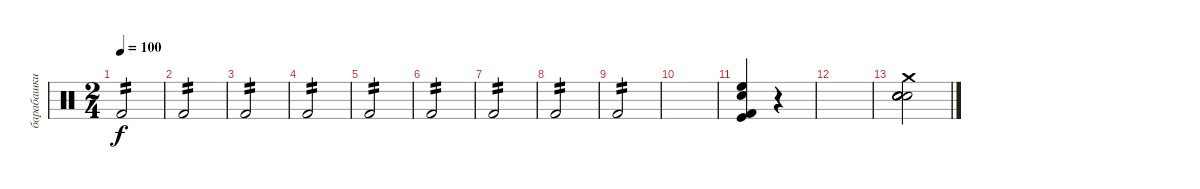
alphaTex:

\track ("барабашки low" "барабашки ") {instrument percussion}
\staff {score}
\articulation defaults
\ts (2 4)
\tempo 100
\clef neutral
\ks c "Kick (hit) 2".2{tp 2 dy f}
|
"Kick (hit) 2".2{tp 2} |
"Kick (hit) 2".2{tp 2} |
"Kick (hit) 2".2{tp 2} |
"Kick (hit) 2".2{tp 2} |
"Kick (hit) 2".2{tp 2} |
"Kick (hit) 2".2{tp 2} |
"Kick (hit) 2".2{tp 2} |
"Kick (hit) 2".2{tp 2} |
|
("High Floor Tom (hit)" "Electric Snare (hit)" "Kick (hit)" "Kick (hit) 2").4 r.4 |
|
("Crash medium (hit)" "Snare (hit) 2" "Snare (hit) 2" "Electric Snare (hit)" "Electric Snare (hit)" "Electric Snare (hit)").2
